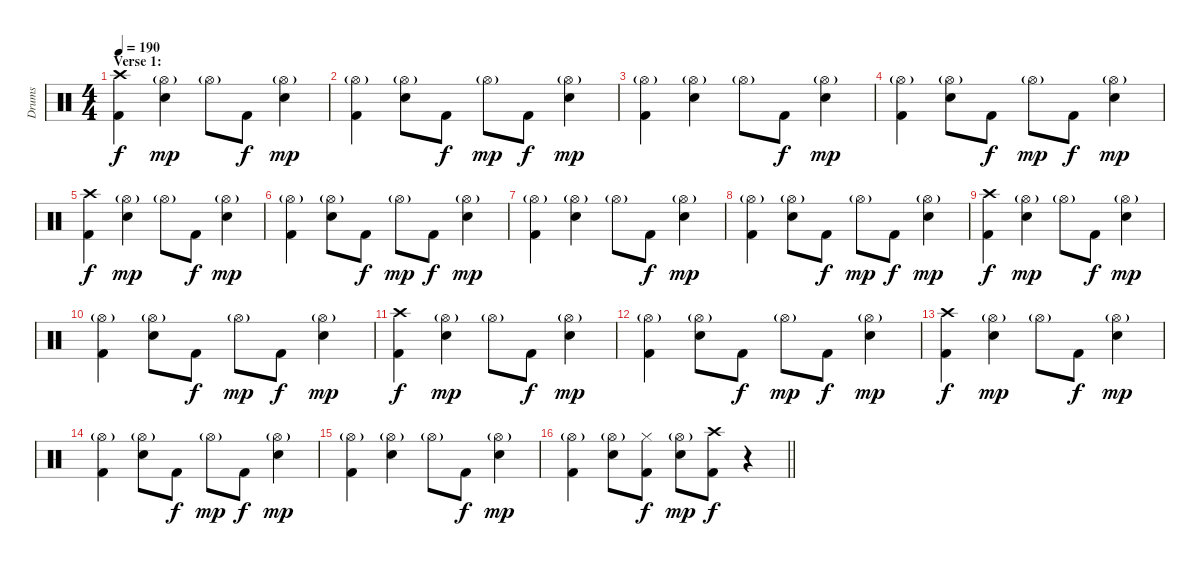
\track ("Drums" "Drums") {instrument percussion}
\staff {score}
\articulation defaults
\ts (4 4)
\section ("" "Verse 1:")
\tempo 190
\clef neutral
\ks c
("Crash high (hit)" "Kick (hit) 2").4{dy f} ("Hi-Hat (open)"{g} "Electric Snare (hit)").4{dy mp} "Hi-Hat (open)"{g}.8 "Kick (hit) 2".8{dy f} ("Hi-Hat (open)"{g} "Electric Snare (hit)").4{dy mp} |
("Hi-Hat (open)"{g} "Kick (hit) 2").4 ("Hi-Hat (open)"{g} "Electric Snare (hit)").8 "Kick (hit) 2".8{dy f} "Hi-Hat (open)"{g}.8{dy mp} "Kick (hit) 2".8{dy f} ("Hi-Hat (open)"{g} "Electric Snare (hit)").4{dy mp} |
("Hi-Hat (open)"{g} "Kick (hit) 2").4 ("Hi-Hat (open)"{g} "Electric Snare (hit)").4 "Hi-Hat (open)"{g}.8 "Kick (hit) 2".8{dy f} ("Hi-Hat (open)"{g} "Electric Snare (hit)").4{dy mp} |
("Hi-Hat (open)"{g} "Kick (hit) 2").4 ("Hi-Hat (open)"{g} "Electric Snare (hit)").8 "Kick (hit) 2".8{dy f} "Hi-Hat (open)"{g}.8{dy mp} "Kick (hit) 2".8{dy f} ("Hi-Hat (open)"{g} "Electric Snare (hit)").4{dy mp} |
("Crash high (hit)" "Kick (hit) 2").4{dy f} ("Hi-Hat (open)"{g} "Electric Snare (hit)").4{dy mp} "Hi-Hat (open)"{g}.8 "Kick (hit) 2".8{dy f} ("Hi-Hat (open)"{g} "Electric Snare (hit)").4{dy mp} |
("Hi-Hat (open)"{g} "Kick (hit) 2").4 ("Hi-Hat (open)"{g} "Electric Snare (hit)").8 "Kick (hit) 2".8{dy f} "Hi-Hat (open)"{g}.8{dy mp} "Kick (hit) 2".8{dy f} ("Hi-Hat (open)"{g} "Electric Snare (hit)").4{dy mp} |
("Hi-Hat (open)"{g} "Kick (hit) 2").4 ("Hi-Hat (open)"{g} "Electric Snare (hit)").4 "Hi-Hat (open)"{g}.8 "Kick (hit) 2".8{dy f} ("Hi-Hat (open)"{g} "Electric Snare (hit)").4{dy mp} |
("Hi-Hat (open)"{g} "Kick (hit) 2").4 ("Hi-Hat (open)"{g} "Electric Snare (hit)").8 "Kick (hit) 2".8{dy f} "Hi-Hat (open)"{g}.8{dy mp} "Kick (hit) 2".8{dy f} ("Hi-Hat (open)"{g} "Electric Snare (hit)").4{dy mp} |
("Crash high (hit)" "Kick (hit) 2").4{dy f} ("Hi-Hat (open)"{g} "Electric Snare (hit)").4{dy mp} "Hi-Hat (open)"{g}.8 "Kick (hit) 2".8{dy f} ("Hi-Hat (open)"{g} "Electric Snare (hit)").4{dy mp} |
("Hi-Hat (open)"{g} "Kick (hit) 2").4 ("Hi-Hat (open)"{g} "Electric Snare (hit)").8 "Kick (hit) 2".8{dy f} "Hi-Hat (open)"{g}.8{dy mp} "Kick (hit) 2".8{dy f} ("Hi-Hat (open)"{g} "Electric Snare (hit)").4{dy mp} |
("Crash high (hit)" "Kick (hit) 2").4{dy f} ("Hi-Hat (open)"{g} "Electric Snare (hit)").4{dy mp} "Hi-Hat (open)"{g}.8 "Kick (hit) 2".8{dy f} ("Hi-Hat (open)"{g} "Electric Snare (hit)").4{dy mp} |
("Hi-Hat (open)"{g} "Kick (hit) 2").4 ("Hi-Hat (open)"{g} "Electric Snare (hit)").8 "Kick (hit) 2".8{dy f} "Hi-Hat (open)"{g}.8{dy mp} "Kick (hit) 2".8{dy f} ("Hi-Hat (open)"{g} "Electric Snare (hit)").4{dy mp} |
("Crash high (hit)" "Kick (hit) 2").4{dy f} ("Hi-Hat (open)"{g} "Electric Snare (hit)").4{dy mp} "Hi-Hat (open)"{g}.8 "Kick (hit) 2".8{dy f} ("Hi-Hat (open)"{g} "Electric Snare (hit)").4{dy mp} |
("Hi-Hat (open)"{g} "Kick (hit) 2").4 ("Hi-Hat (open)"{g} "Electric Snare (hit)").8 "Kick (hit) 2".8{dy f} "Hi-Hat (open)"{g}.8{dy mp} "Kick (hit) 2".8{dy f} ("Hi-Hat (open)"{g} "Electric Snare (hit)").4{dy mp} |
("Hi-Hat (open)"{g} "Kick (hit) 2").4 ("Hi-Hat (open)"{g} "Electric Snare (hit)").4 "Hi-Hat (open)"{g}.8 "Kick (hit) 2".8{dy f} ("Hi-Hat (open)"{g} "Electric Snare (hit)").4{dy mp} |
\barLineRight lightlight
("Hi-Hat (open)"{g} "Kick (hit) 2").4 ("Hi-Hat (open)"{g} "Electric Snare (hit)").8 ("Hi-Hat (closed)" "Kick (hit) 2").8{dy f} ("Hi-Hat (open)"{g} "Electric Snare (hit)").8{dy mp} ("Crash high (hit)" "Kick (hit) 2").8{dy f} r.4
